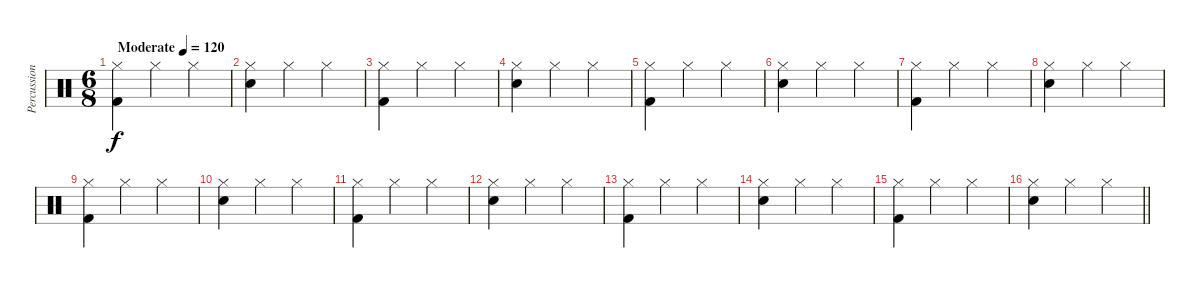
\track ("Percussion" "Percussion") {instrument percussion}
\staff {score}
\articulation defaults
\ts (6 8)
\tempo (120 "Moderate")
\clef neutral
\ks c
("Hi-Hat (closed)" "Kick (hit) 2").4{dy f} "Hi-Hat (closed)".4 "Hi-Hat (closed)".4 |
("Hi-Hat (closed)" "Snare (hit) 2").4 "Hi-Hat (closed)".4 "Hi-Hat (closed)".4 |
("Hi-Hat (closed)" "Kick (hit) 2").4 "Hi-Hat (closed)".4 "Hi-Hat (closed)".4 |
("Hi-Hat (closed)" "Snare (hit) 2").4 "Hi-Hat (closed)".4 "Hi-Hat (closed)".4 |
("Hi-Hat (closed)" "Kick (hit) 2").4 "Hi-Hat (closed)".4 "Hi-Hat (closed)".4 |
("Hi-Hat (closed)" "Snare (hit) 2").4 "Hi-Hat (closed)".4 "Hi-Hat (closed)".4 |
("Hi-Hat (closed)" "Kick (hit) 2").4 "Hi-Hat (closed)".4 "Hi-Hat (closed)".4 |
("Hi-Hat (closed)" "Snare (hit) 2").4 "Hi-Hat (closed)".4 "Hi-Hat (closed)".4 |
("Hi-Hat (closed)" "Kick (hit) 2").4 "Hi-Hat (closed)".4 "Hi-Hat (closed)".4 |
("Hi-Hat (closed)" "Snare (hit) 2").4 "Hi-Hat (closed)".4 "Hi-Hat (closed)".4 |
("Hi-Hat (closed)" "Kick (hit) 2").4 "Hi-Hat (closed)".4 "Hi-Hat (closed)".4 |
("Hi-Hat (closed)" "Snare (hit) 2").4 "Hi-Hat (closed)".4 "Hi-Hat (closed)".4 |
("Hi-Hat (closed)" "Kick (hit) 2").4 "Hi-Hat (closed)".4 "Hi-Hat (closed)".4 |
("Hi-Hat (closed)" "Snare (hit) 2").4 "Hi-Hat (closed)".4 "Hi-Hat (closed)".4 |
("Hi-Hat (closed)" "Kick (hit) 2").4 "Hi-Hat (closed)".4 "Hi-Hat (closed)".4 |
\barLineRight lightlight
("Hi-Hat (closed)" "Snare (hit) 2").4 "Hi-Hat (closed)".4 "Hi-Hat (closed)".4
